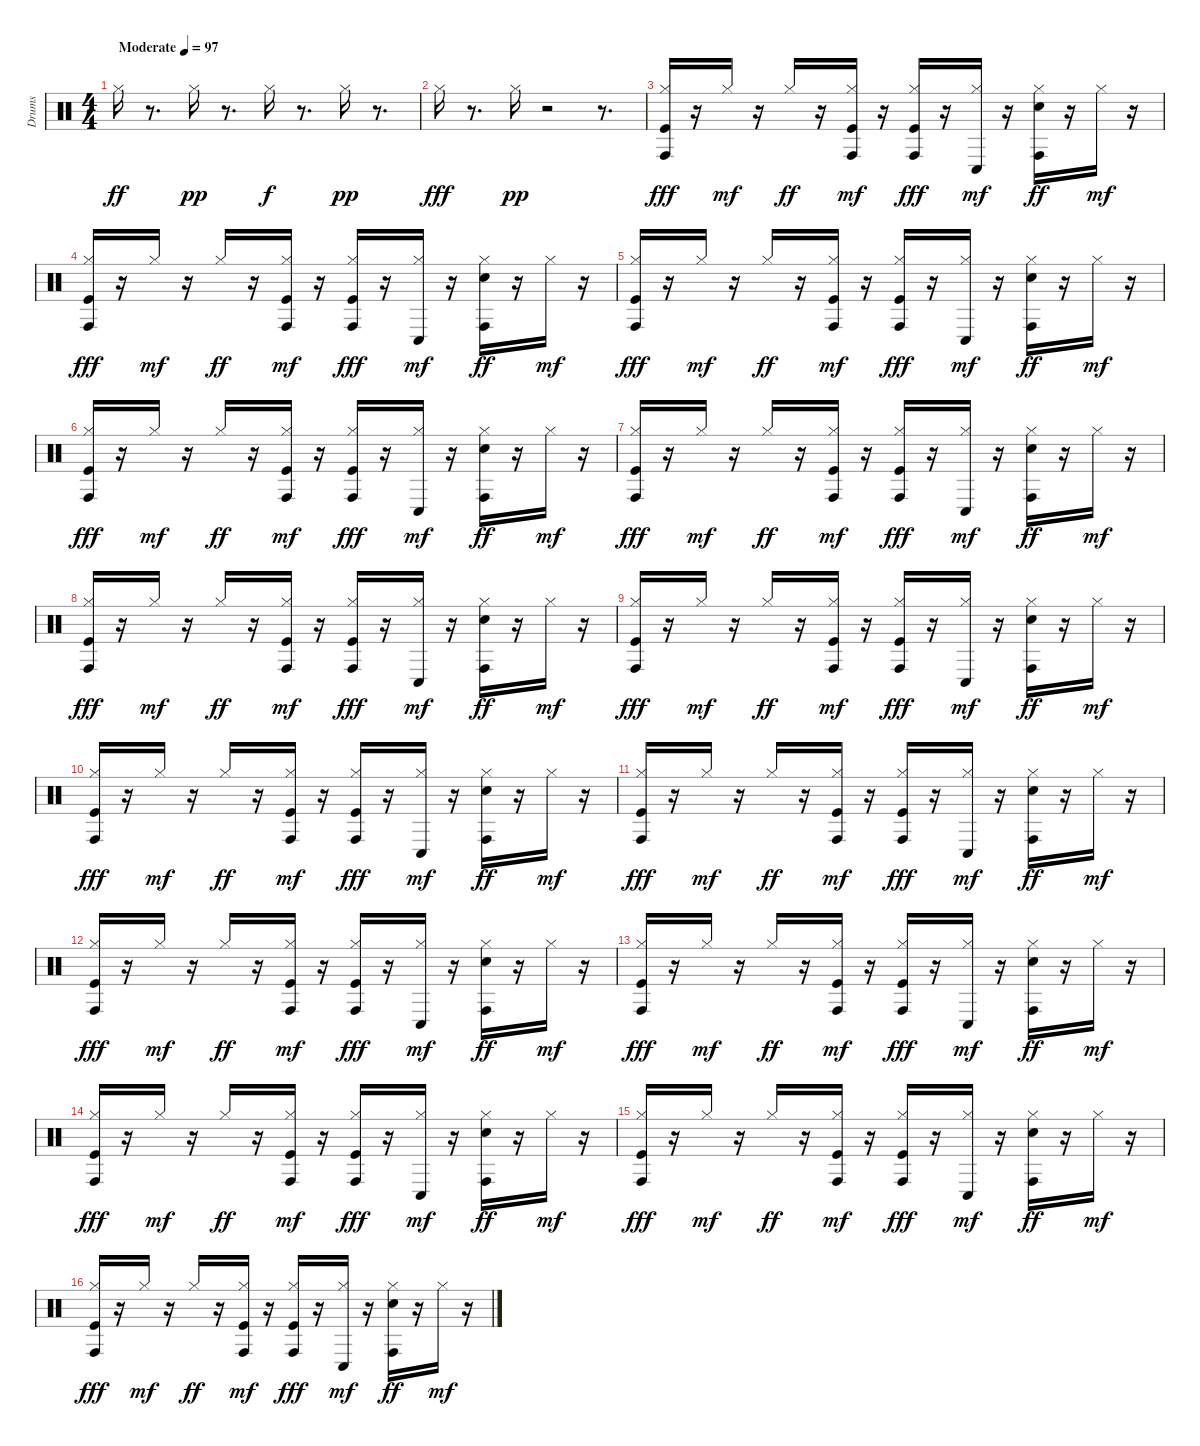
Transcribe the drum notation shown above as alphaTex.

\track ("Drums" "Drums") {instrument percussion}
\staff {score}
\articulation defaults
\ts (4 4)
\tempo (97 "Moderate")
\clef neutral
\ks c "Hi-Hat (closed)".16{dy ff}
r.8{d} "Hi-Hat (closed)".16{dy pp} r.8{d} "Hi-Hat (closed)".16{dy f} r.8{d} "Hi-Hat (closed)".16{dy pp} r.8{d} |
"Hi-Hat (closed)".16{dy fff} r.8{d} "Hi-Hat (closed)".16{dy pp} r.2 r.8{d} |
("Kick (hit)" "Hi-Hat (closed)" "Conga high (hit)").16{dy fff} r.16 "Hi-Hat (closed)".16{dy mf} r.16 "Hi-Hat (closed)".16{dy ff} r.16 ("Kick (hit)" "Hi-Hat (closed)" "Conga high (hit)").16{dy mf} r.16 ("Kick (hit)" "Hi-Hat (closed)" "Conga high (hit)").16{dy fff} r.16 ("Conga low (hit)" "Hi-Hat (closed)").16{dy mf} r.16 ("Conga high (hit)" "Snare (hit) 2" "Hi-Hat (closed)").16{dy ff} r.16 "Hi-Hat (closed)".16{dy mf} r.16 |
("Kick (hit)" "Hi-Hat (closed)" "Conga high (hit)").16{dy fff} r.16 "Hi-Hat (closed)".16{dy mf} r.16 "Hi-Hat (closed)".16{dy ff} r.16 ("Kick (hit)" "Hi-Hat (closed)" "Conga high (hit)").16{dy mf} r.16 ("Kick (hit)" "Hi-Hat (closed)" "Conga high (hit)").16{dy fff} r.16 ("Conga low (hit)" "Hi-Hat (closed)").16{dy mf} r.16 ("Conga high (hit)" "Snare (hit) 2" "Hi-Hat (closed)").16{dy ff} r.16 "Hi-Hat (closed)".16{dy mf} r.16 |
("Kick (hit)" "Hi-Hat (closed)" "Conga high (hit)").16{dy fff} r.16 "Hi-Hat (closed)".16{dy mf} r.16 "Hi-Hat (closed)".16{dy ff} r.16 ("Kick (hit)" "Hi-Hat (closed)" "Conga high (hit)").16{dy mf} r.16 ("Kick (hit)" "Hi-Hat (closed)" "Conga high (hit)").16{dy fff} r.16 ("Conga low (hit)" "Hi-Hat (closed)").16{dy mf} r.16 ("Conga high (hit)" "Snare (hit) 2" "Hi-Hat (closed)").16{dy ff} r.16 "Hi-Hat (closed)".16{dy mf} r.16 |
("Kick (hit)" "Hi-Hat (closed)" "Conga high (hit)").16{dy fff} r.16 "Hi-Hat (closed)".16{dy mf} r.16 "Hi-Hat (closed)".16{dy ff} r.16 ("Kick (hit)" "Hi-Hat (closed)" "Conga high (hit)").16{dy mf} r.16 ("Kick (hit)" "Hi-Hat (closed)" "Conga high (hit)").16{dy fff} r.16 ("Conga low (hit)" "Hi-Hat (closed)").16{dy mf} r.16 ("Conga high (hit)" "Snare (hit) 2" "Hi-Hat (closed)").16{dy ff} r.16 "Hi-Hat (closed)".16{dy mf} r.16 |
("Kick (hit)" "Hi-Hat (closed)" "Conga high (hit)").16{dy fff} r.16 "Hi-Hat (closed)".16{dy mf} r.16 "Hi-Hat (closed)".16{dy ff} r.16 ("Kick (hit)" "Hi-Hat (closed)" "Conga high (hit)").16{dy mf} r.16 ("Kick (hit)" "Hi-Hat (closed)" "Conga high (hit)").16{dy fff} r.16 ("Conga low (hit)" "Hi-Hat (closed)").16{dy mf} r.16 ("Conga high (hit)" "Snare (hit) 2" "Hi-Hat (closed)").16{dy ff} r.16 "Hi-Hat (closed)".16{dy mf} r.16 |
("Kick (hit)" "Hi-Hat (closed)" "Conga high (hit)").16{dy fff} r.16 "Hi-Hat (closed)".16{dy mf} r.16 "Hi-Hat (closed)".16{dy ff} r.16 ("Kick (hit)" "Hi-Hat (closed)" "Conga high (hit)").16{dy mf} r.16 ("Kick (hit)" "Hi-Hat (closed)" "Conga high (hit)").16{dy fff} r.16 ("Conga low (hit)" "Hi-Hat (closed)").16{dy mf} r.16 ("Conga high (hit)" "Snare (hit) 2" "Hi-Hat (closed)").16{dy ff} r.16 "Hi-Hat (closed)".16{dy mf} r.16 |
("Kick (hit)" "Hi-Hat (closed)" "Conga high (hit)").16{dy fff} r.16 "Hi-Hat (closed)".16{dy mf} r.16 "Hi-Hat (closed)".16{dy ff} r.16 ("Kick (hit)" "Hi-Hat (closed)" "Conga high (hit)").16{dy mf} r.16 ("Kick (hit)" "Hi-Hat (closed)" "Conga high (hit)").16{dy fff} r.16 ("Conga low (hit)" "Hi-Hat (closed)").16{dy mf} r.16 ("Conga high (hit)" "Snare (hit) 2" "Hi-Hat (closed)").16{dy ff} r.16 "Hi-Hat (closed)".16{dy mf} r.16 |
("Kick (hit)" "Hi-Hat (closed)" "Conga high (hit)").16{dy fff} r.16 "Hi-Hat (closed)".16{dy mf} r.16 "Hi-Hat (closed)".16{dy ff} r.16 ("Kick (hit)" "Hi-Hat (closed)" "Conga high (hit)").16{dy mf} r.16 ("Kick (hit)" "Hi-Hat (closed)" "Conga high (hit)").16{dy fff} r.16 ("Conga low (hit)" "Hi-Hat (closed)").16{dy mf} r.16 ("Conga high (hit)" "Snare (hit) 2" "Hi-Hat (closed)").16{dy ff} r.16 "Hi-Hat (closed)".16{dy mf} r.16 |
("Kick (hit)" "Hi-Hat (closed)" "Conga high (hit)").16{dy fff} r.16 "Hi-Hat (closed)".16{dy mf} r.16 "Hi-Hat (closed)".16{dy ff} r.16 ("Kick (hit)" "Hi-Hat (closed)" "Conga high (hit)").16{dy mf} r.16 ("Kick (hit)" "Hi-Hat (closed)" "Conga high (hit)").16{dy fff} r.16 ("Conga low (hit)" "Hi-Hat (closed)").16{dy mf} r.16 ("Conga high (hit)" "Snare (hit) 2" "Hi-Hat (closed)").16{dy ff} r.16 "Hi-Hat (closed)".16{dy mf} r.16 |
("Kick (hit)" "Hi-Hat (closed)" "Conga high (hit)").16{dy fff} r.16 "Hi-Hat (closed)".16{dy mf} r.16 "Hi-Hat (closed)".16{dy ff} r.16 ("Kick (hit)" "Hi-Hat (closed)" "Conga high (hit)").16{dy mf} r.16 ("Kick (hit)" "Hi-Hat (closed)" "Conga high (hit)").16{dy fff} r.16 ("Conga low (hit)" "Hi-Hat (closed)").16{dy mf} r.16 ("Conga high (hit)" "Snare (hit) 2" "Hi-Hat (closed)").16{dy ff} r.16 "Hi-Hat (closed)".16{dy mf} r.16 |
("Kick (hit)" "Hi-Hat (closed)" "Conga high (hit)").16{dy fff} r.16 "Hi-Hat (closed)".16{dy mf} r.16 "Hi-Hat (closed)".16{dy ff} r.16 ("Kick (hit)" "Hi-Hat (closed)" "Conga high (hit)").16{dy mf} r.16 ("Kick (hit)" "Hi-Hat (closed)" "Conga high (hit)").16{dy fff} r.16 ("Conga low (hit)" "Hi-Hat (closed)").16{dy mf} r.16 ("Conga high (hit)" "Snare (hit) 2" "Hi-Hat (closed)").16{dy ff} r.16 "Hi-Hat (closed)".16{dy mf} r.16 |
("Kick (hit)" "Hi-Hat (closed)" "Conga high (hit)").16{dy fff} r.16 "Hi-Hat (closed)".16{dy mf} r.16 "Hi-Hat (closed)".16{dy ff} r.16 ("Kick (hit)" "Hi-Hat (closed)" "Conga high (hit)").16{dy mf} r.16 ("Kick (hit)" "Hi-Hat (closed)" "Conga high (hit)").16{dy fff} r.16 ("Conga low (hit)" "Hi-Hat (closed)").16{dy mf} r.16 ("Conga high (hit)" "Snare (hit) 2" "Hi-Hat (closed)").16{dy ff} r.16 "Hi-Hat (closed)".16{dy mf} r.16 |
("Kick (hit)" "Hi-Hat (closed)" "Conga high (hit)").16{dy fff} r.16 "Hi-Hat (closed)".16{dy mf} r.16 "Hi-Hat (closed)".16{dy ff} r.16 ("Kick (hit)" "Hi-Hat (closed)" "Conga high (hit)").16{dy mf} r.16 ("Kick (hit)" "Hi-Hat (closed)" "Conga high (hit)").16{dy fff} r.16 ("Conga low (hit)" "Hi-Hat (closed)").16{dy mf} r.16 ("Conga high (hit)" "Snare (hit) 2" "Hi-Hat (closed)").16{dy ff} r.16 "Hi-Hat (closed)".16{dy mf} r.16 |
("Kick (hit)" "Hi-Hat (closed)" "Conga high (hit)").16{dy fff} r.16 "Hi-Hat (closed)".16{dy mf} r.16 "Hi-Hat (closed)".16{dy ff} r.16 ("Kick (hit)" "Hi-Hat (closed)" "Conga high (hit)").16{dy mf} r.16 ("Kick (hit)" "Hi-Hat (closed)" "Conga high (hit)").16{dy fff} r.16 ("Conga low (hit)" "Hi-Hat (closed)").16{dy mf} r.16 ("Conga high (hit)" "Snare (hit) 2" "Hi-Hat (closed)").16{dy ff} r.16 "Hi-Hat (closed)".16{dy mf} r.16
